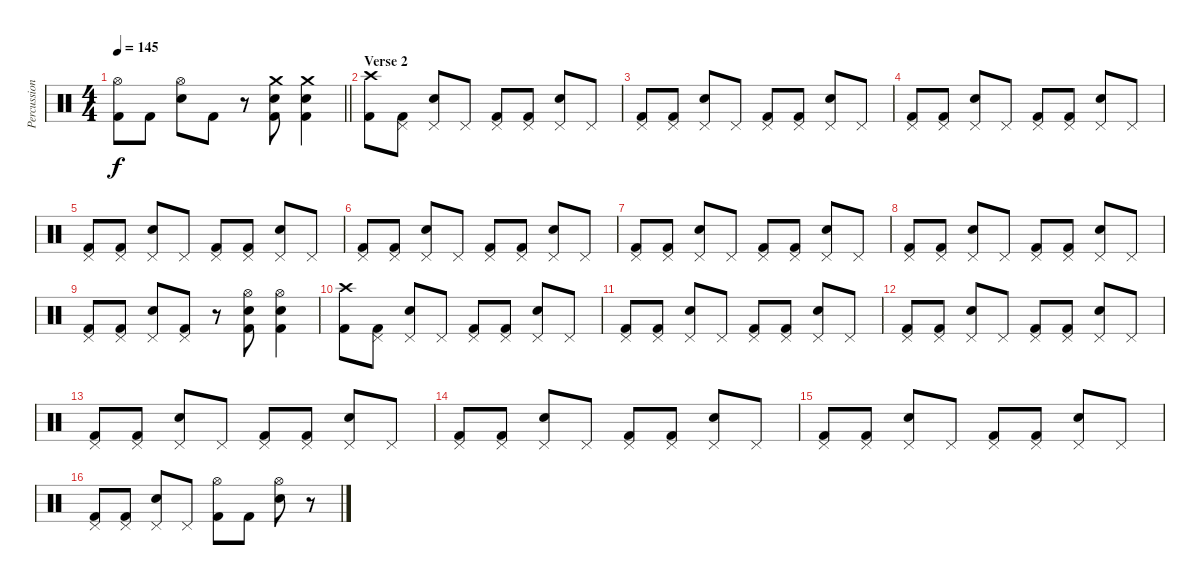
\track ("Percussion" "Percussion") {instrument percussion}
\staff {score}
\articulation defaults
\ts (4 4)
\tempo 145
\clef neutral
\barLineRight lightlight
\ks c
("Hi-Hat (open)" "Kick (hit) 2").8{dy f} "Kick (hit) 2".8 ("Hi-Hat (open)" "Snare (hit) 2").8 "Kick (hit) 2".8 r.8 ("Crash medium (hit)" "Snare (hit) 2" "Kick (hit) 2").8 ("Crash medium (hit)" "Snare (hit) 2" "Kick (hit) 2").4 |
\section ("" "Verse 2")
("Crash high (hit)" "Kick (hit) 2").8 ("Pedal Hi-Hat (hit)" "Kick (hit) 2").8 ("Pedal Hi-Hat (hit)" "Snare (hit) 2").8 "Pedal Hi-Hat (hit)".8 ("Pedal Hi-Hat (hit)" "Kick (hit) 2").8 ("Pedal Hi-Hat (hit)" "Kick (hit) 2").8 ("Pedal Hi-Hat (hit)" "Snare (hit) 2").8 "Pedal Hi-Hat (hit)".8 |
("Pedal Hi-Hat (hit)" "Kick (hit) 2").8 ("Pedal Hi-Hat (hit)" "Kick (hit) 2").8 ("Pedal Hi-Hat (hit)" "Snare (hit) 2").8 "Pedal Hi-Hat (hit)".8 ("Pedal Hi-Hat (hit)" "Kick (hit) 2").8 ("Pedal Hi-Hat (hit)" "Kick (hit) 2").8 ("Pedal Hi-Hat (hit)" "Snare (hit) 2").8 "Pedal Hi-Hat (hit)".8 |
("Pedal Hi-Hat (hit)" "Kick (hit) 2").8 ("Pedal Hi-Hat (hit)" "Kick (hit) 2").8 ("Pedal Hi-Hat (hit)" "Snare (hit) 2").8 "Pedal Hi-Hat (hit)".8 ("Pedal Hi-Hat (hit)" "Kick (hit) 2").8 ("Pedal Hi-Hat (hit)" "Kick (hit) 2").8 ("Pedal Hi-Hat (hit)" "Snare (hit) 2").8 "Pedal Hi-Hat (hit)".8 |
("Pedal Hi-Hat (hit)" "Kick (hit) 2").8 ("Pedal Hi-Hat (hit)" "Kick (hit) 2").8 ("Pedal Hi-Hat (hit)" "Snare (hit) 2").8 "Pedal Hi-Hat (hit)".8 ("Pedal Hi-Hat (hit)" "Kick (hit) 2").8 ("Pedal Hi-Hat (hit)" "Kick (hit) 2").8 ("Pedal Hi-Hat (hit)" "Snare (hit) 2").8 "Pedal Hi-Hat (hit)".8 |
("Pedal Hi-Hat (hit)" "Kick (hit) 2").8 ("Pedal Hi-Hat (hit)" "Kick (hit) 2").8 ("Pedal Hi-Hat (hit)" "Snare (hit) 2").8 "Pedal Hi-Hat (hit)".8 ("Pedal Hi-Hat (hit)" "Kick (hit) 2").8 ("Pedal Hi-Hat (hit)" "Kick (hit) 2").8 ("Pedal Hi-Hat (hit)" "Snare (hit) 2").8 "Pedal Hi-Hat (hit)".8 |
("Pedal Hi-Hat (hit)" "Kick (hit) 2").8 ("Pedal Hi-Hat (hit)" "Kick (hit) 2").8 ("Pedal Hi-Hat (hit)" "Snare (hit) 2").8 "Pedal Hi-Hat (hit)".8 ("Pedal Hi-Hat (hit)" "Kick (hit) 2").8 ("Pedal Hi-Hat (hit)" "Kick (hit) 2").8 ("Pedal Hi-Hat (hit)" "Snare (hit) 2").8 "Pedal Hi-Hat (hit)".8 |
("Pedal Hi-Hat (hit)" "Kick (hit) 2").8 ("Pedal Hi-Hat (hit)" "Kick (hit) 2").8 ("Pedal Hi-Hat (hit)" "Snare (hit) 2").8 "Pedal Hi-Hat (hit)".8 ("Pedal Hi-Hat (hit)" "Kick (hit) 2").8 ("Pedal Hi-Hat (hit)" "Kick (hit) 2").8 ("Pedal Hi-Hat (hit)" "Snare (hit) 2").8 "Pedal Hi-Hat (hit)".8 |
("Pedal Hi-Hat (hit)" "Kick (hit) 2").8 ("Pedal Hi-Hat (hit)" "Kick (hit) 2").8 ("Pedal Hi-Hat (hit)" "Snare (hit) 2").8 ("Pedal Hi-Hat (hit)" "Kick (hit) 2").8 r.8 ("Hi-Hat (open)" "Snare (hit) 2" "Kick (hit) 2").8 ("Hi-Hat (open)" "Snare (hit) 2" "Kick (hit) 2").4 |
("Crash high (hit)" "Kick (hit) 2").8 ("Pedal Hi-Hat (hit)" "Kick (hit) 2").8 ("Pedal Hi-Hat (hit)" "Snare (hit) 2").8 "Pedal Hi-Hat (hit)".8 ("Pedal Hi-Hat (hit)" "Kick (hit) 2").8 ("Pedal Hi-Hat (hit)" "Kick (hit) 2").8 ("Pedal Hi-Hat (hit)" "Snare (hit) 2").8 "Pedal Hi-Hat (hit)".8 |
("Pedal Hi-Hat (hit)" "Kick (hit) 2").8 ("Pedal Hi-Hat (hit)" "Kick (hit) 2").8 ("Pedal Hi-Hat (hit)" "Snare (hit) 2").8 "Pedal Hi-Hat (hit)".8 ("Pedal Hi-Hat (hit)" "Kick (hit) 2").8 ("Pedal Hi-Hat (hit)" "Kick (hit) 2").8 ("Pedal Hi-Hat (hit)" "Snare (hit) 2").8 "Pedal Hi-Hat (hit)".8 |
("Pedal Hi-Hat (hit)" "Kick (hit) 2").8 ("Pedal Hi-Hat (hit)" "Kick (hit) 2").8 ("Pedal Hi-Hat (hit)" "Snare (hit) 2").8 "Pedal Hi-Hat (hit)".8 ("Pedal Hi-Hat (hit)" "Kick (hit) 2").8 ("Pedal Hi-Hat (hit)" "Kick (hit) 2").8 ("Pedal Hi-Hat (hit)" "Snare (hit) 2").8 "Pedal Hi-Hat (hit)".8 |
("Pedal Hi-Hat (hit)" "Kick (hit) 2").8 ("Pedal Hi-Hat (hit)" "Kick (hit) 2").8 ("Pedal Hi-Hat (hit)" "Snare (hit) 2").8 "Pedal Hi-Hat (hit)".8 ("Pedal Hi-Hat (hit)" "Kick (hit) 2").8 ("Pedal Hi-Hat (hit)" "Kick (hit) 2").8 ("Pedal Hi-Hat (hit)" "Snare (hit) 2").8 "Pedal Hi-Hat (hit)".8 |
("Pedal Hi-Hat (hit)" "Kick (hit) 2").8 ("Pedal Hi-Hat (hit)" "Kick (hit) 2").8 ("Pedal Hi-Hat (hit)" "Snare (hit) 2").8 "Pedal Hi-Hat (hit)".8 ("Pedal Hi-Hat (hit)" "Kick (hit) 2").8 ("Pedal Hi-Hat (hit)" "Kick (hit) 2").8 ("Pedal Hi-Hat (hit)" "Snare (hit) 2").8 "Pedal Hi-Hat (hit)".8 |
("Pedal Hi-Hat (hit)" "Kick (hit) 2").8 ("Pedal Hi-Hat (hit)" "Kick (hit) 2").8 ("Pedal Hi-Hat (hit)" "Snare (hit) 2").8 "Pedal Hi-Hat (hit)".8 ("Pedal Hi-Hat (hit)" "Kick (hit) 2").8 ("Pedal Hi-Hat (hit)" "Kick (hit) 2").8 ("Pedal Hi-Hat (hit)" "Snare (hit) 2").8 "Pedal Hi-Hat (hit)".8 |
("Pedal Hi-Hat (hit)" "Kick (hit) 2").8 ("Pedal Hi-Hat (hit)" "Kick (hit) 2").8 ("Pedal Hi-Hat (hit)" "Snare (hit) 2").8 "Pedal Hi-Hat (hit)".8 ("Hi-Hat (open)" "Kick (hit) 2").8 "Kick (hit) 2".8 ("Hi-Hat (open)" "Snare (hit) 2").8 r.8
